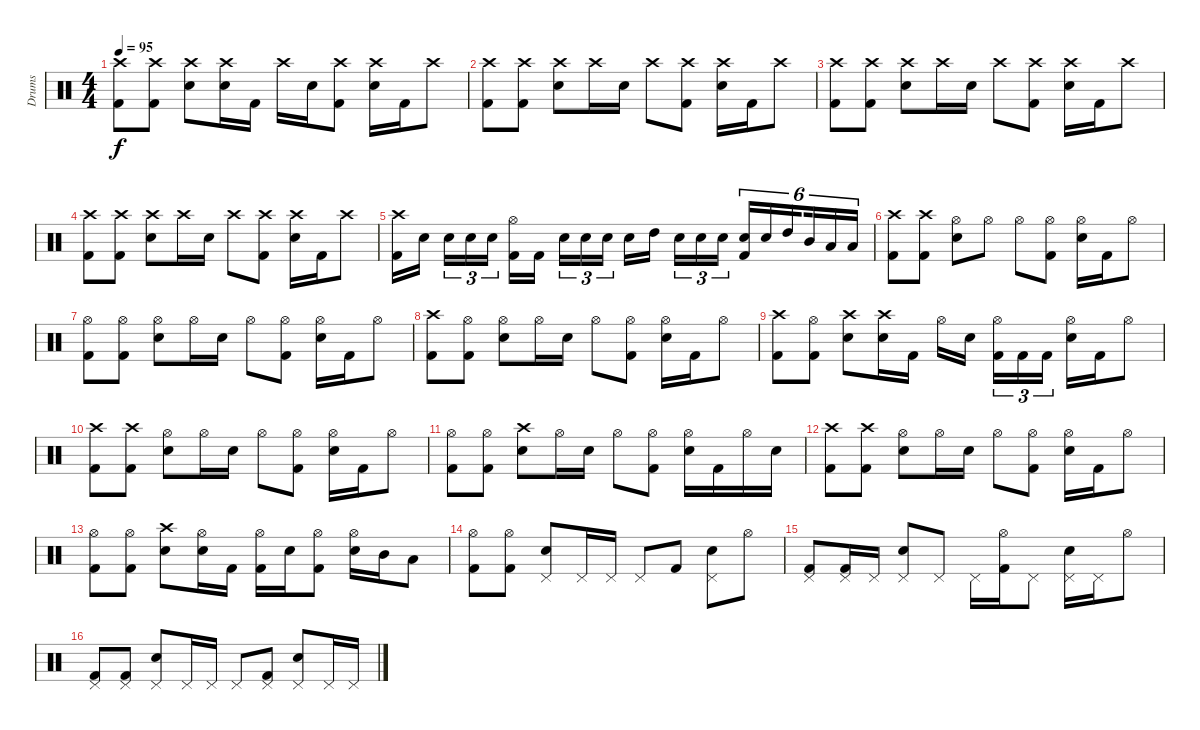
\track ("Drums" "Drums") {instrument percussion}
\staff {score}
\articulation defaults
\ts (4 4)
\tempo 95
\clef neutral
\ks c
("Crash high (hit)" "Kick (hit) 2").8{dy f} ("Crash high (hit)" "Kick (hit) 2").8 ("Crash high (hit)" "Electric Snare (hit)").8 ("Crash high (hit)" "Electric Snare (hit)").16 "Kick (hit) 2".16 "Crash high (hit)".16 "Electric Snare (hit)".16 ("Crash high (hit)" "Kick (hit) 2").8 ("Crash high (hit)" "Electric Snare (hit)").16 "Kick (hit) 2".16 "Crash high (hit)".8 |
("Crash high (hit)" "Kick (hit) 2").8 ("Crash high (hit)" "Kick (hit) 2").8 ("Crash high (hit)" "Electric Snare (hit)").8 "Crash high (hit)".16 "Electric Snare (hit)".16 "Crash high (hit)".8 ("Crash high (hit)" "Kick (hit) 2").8 ("Crash high (hit)" "Electric Snare (hit)").16 "Kick (hit) 2".16 "Crash high (hit)".8 |
("Crash high (hit)" "Kick (hit) 2").8 ("Crash high (hit)" "Kick (hit) 2").8 ("Crash high (hit)" "Electric Snare (hit)").8 "Crash high (hit)".16 "Electric Snare (hit)".16 "Crash high (hit)".8 ("Crash high (hit)" "Kick (hit) 2").8 ("Crash high (hit)" "Electric Snare (hit)").16 "Kick (hit) 2".16 "Crash high (hit)".8 |
("Crash high (hit)" "Kick (hit) 2").8 ("Crash high (hit)" "Kick (hit) 2").8 ("Crash high (hit)" "Electric Snare (hit)").8 "Crash high (hit)".16 "Electric Snare (hit)".16 "Crash high (hit)".8 ("Crash high (hit)" "Kick (hit) 2").8 ("Crash high (hit)" "Electric Snare (hit)").16 "Kick (hit) 2".16 "Crash high (hit)".8 |
("Crash high (hit)" "Kick (hit) 2").16 "Electric Snare (hit)".16{beam splitsecondary} "Electric Snare (hit)".16{tu (3 2)} "Electric Snare (hit)".16{tu (3 2)} "Electric Snare (hit)".16{tu (3 2)} ("Hi-Hat (open)" "Kick (hit) 2").16 "Kick (hit) 2".16{beam splitsecondary} "Electric Snare (hit)".16{tu (3 2)} "Electric Snare (hit)".16{tu (3 2)} "Electric Snare (hit)".16{tu (3 2)} "Electric Snare (hit)".16 "High Tom (hit)".16{beam splitsecondary} "Electric Snare (hit)".16{tu (3 2)} "Electric Snare (hit)".16{tu (3 2)} "Electric Snare (hit)".16{tu (3 2)} ("Electric Snare (hit)" "Kick (hit) 2").16{tu (6 4)} "Electric Snare (hit)".16{tu (6 4)} "High Tom (hit)".16{tu (6 4) beam splitsecondary} "Mid Tom (hit)".16{tu (6 4)} "Low Tom (hit)".16{tu (6 4)} "Low Tom (hit)".16{tu (6 4)} |
("Crash high (hit)" "Kick (hit) 2").8 ("Crash high (hit)" "Kick (hit) 2").8 ("Hi-Hat (open)" "Electric Snare (hit)").8 "Hi-Hat (open)".8 "Hi-Hat (open)".8 ("Hi-Hat (open)" "Kick (hit) 2").8 ("Hi-Hat (open)" "Electric Snare (hit)").16 "Kick (hit) 2".16 "Hi-Hat (open)".8 |
("Hi-Hat (open)" "Kick (hit) 2").8 ("Hi-Hat (open)" "Kick (hit) 2").8 ("Hi-Hat (open)" "Electric Snare (hit)").8 "Hi-Hat (open)".16 "Electric Snare (hit)".16 "Hi-Hat (open)".8 ("Hi-Hat (open)" "Kick (hit) 2").8 ("Hi-Hat (open)" "Electric Snare (hit)").16 "Kick (hit) 2".16 "Hi-Hat (open)".8 |
("Crash high (hit)" "Kick (hit) 2").8 ("Hi-Hat (open)" "Kick (hit) 2").8 ("Hi-Hat (open)" "Electric Snare (hit)").8 "Hi-Hat (open)".16 "Electric Snare (hit)".16 "Hi-Hat (open)".8 ("Hi-Hat (open)" "Kick (hit) 2").8 ("Hi-Hat (open)" "Electric Snare (hit)").16 "Kick (hit) 2".16 "Hi-Hat (open)".8 |
("Crash high (hit)" "Kick (hit) 2").8 ("Hi-Hat (open)" "Kick (hit) 2").8 ("Crash high (hit)" "Electric Snare (hit)").8 ("Crash high (hit)" "Electric Snare (hit)").16 "Kick (hit) 2".16 "Hi-Hat (open)".16 "Electric Snare (hit)".16{beam splitsecondary} ("Hi-Hat (open)" "Kick (hit) 2").16{tu (3 2)} "Kick (hit) 2".16{tu (3 2)} "Kick (hit) 2".16{tu (3 2)} ("Hi-Hat (open)" "Electric Snare (hit)").16 "Kick (hit) 2".16 "Hi-Hat (open)".8 |
("Crash high (hit)" "Kick (hit) 2").8 ("Crash high (hit)" "Kick (hit) 2").8 ("Hi-Hat (open)" "Electric Snare (hit)").8 "Hi-Hat (open)".16 "Electric Snare (hit)".16 "Hi-Hat (open)".8 ("Hi-Hat (open)" "Kick (hit) 2").8 ("Hi-Hat (open)" "Electric Snare (hit)").16 "Kick (hit) 2".16 "Hi-Hat (open)".8 |
("Hi-Hat (open)" "Kick (hit) 2").8 ("Hi-Hat (open)" "Kick (hit) 2").8 ("Crash high (hit)" "Electric Snare (hit)").8 "Hi-Hat (open)".16 "Electric Snare (hit)".16 "Hi-Hat (open)".8 ("Hi-Hat (open)" "Kick (hit) 2").8 ("Hi-Hat (open)" "Electric Snare (hit)").16 "Kick (hit) 2".16 "Hi-Hat (open)".16 "Electric Snare (hit)".16 |
("Crash high (hit)" "Kick (hit) 2").8 ("Crash high (hit)" "Kick (hit) 2").8 ("Hi-Hat (open)" "Electric Snare (hit)").8 "Hi-Hat (open)".16 "Electric Snare (hit)".16 "Hi-Hat (open)".8 ("Hi-Hat (open)" "Kick (hit) 2").8 ("Hi-Hat (open)" "Electric Snare (hit)").16 "Kick (hit) 2".16 "Hi-Hat (open)".8 |
("Hi-Hat (open)" "Kick (hit) 2").8 ("Hi-Hat (open)" "Kick (hit) 2").8 ("Crash high (hit)" "Electric Snare (hit)").8 ("Hi-Hat (open)" "Electric Snare (hit)").16 "Kick (hit) 2".16 ("Hi-Hat (open)" "Kick (hit) 2").16 "Electric Snare (hit)".16 ("Hi-Hat (open)" "Kick (hit) 2").8 ("Hi-Hat (open)" "Electric Snare (hit)").16 "Mid Tom (hit)".16 "Low Tom (hit)".8 |
("Hi-Hat (open)" "Kick (hit) 2").8 ("Hi-Hat (open)" "Kick (hit) 2").8 ("Pedal Hi-Hat (hit)" "Electric Snare (hit)").8 "Pedal Hi-Hat (hit)".16 "Pedal Hi-Hat (hit)".16 "Pedal Hi-Hat (hit)".8 "Kick (hit) 2".8 ("Pedal Hi-Hat (hit)" "Electric Snare (hit)").8 "Hi-Hat (open)".8 |
("Pedal Hi-Hat (hit)" "Kick (hit) 2").8 ("Pedal Hi-Hat (hit)" "Kick (hit) 2").16 "Pedal Hi-Hat (hit)".16 ("Pedal Hi-Hat (hit)" "Electric Snare (hit)").8 "Pedal Hi-Hat (hit)".8 "Pedal Hi-Hat (hit)".16 ("Hi-Hat (open)" "Kick (hit) 2").16 "Pedal Hi-Hat (hit)".8 ("Pedal Hi-Hat (hit)" "Electric Snare (hit)").16 "Pedal Hi-Hat (hit)".16 "Hi-Hat (open)".8 |
("Pedal Hi-Hat (hit)" "Kick (hit) 2").8 ("Pedal Hi-Hat (hit)" "Kick (hit) 2").8 ("Pedal Hi-Hat (hit)" "Electric Snare (hit)").8 "Pedal Hi-Hat (hit)".16 "Pedal Hi-Hat (hit)".16 "Pedal Hi-Hat (hit)".8 ("Pedal Hi-Hat (hit)" "Kick (hit) 2").8 ("Pedal Hi-Hat (hit)" "Electric Snare (hit)").8 "Pedal Hi-Hat (hit)".16 "Pedal Hi-Hat (hit)".16
